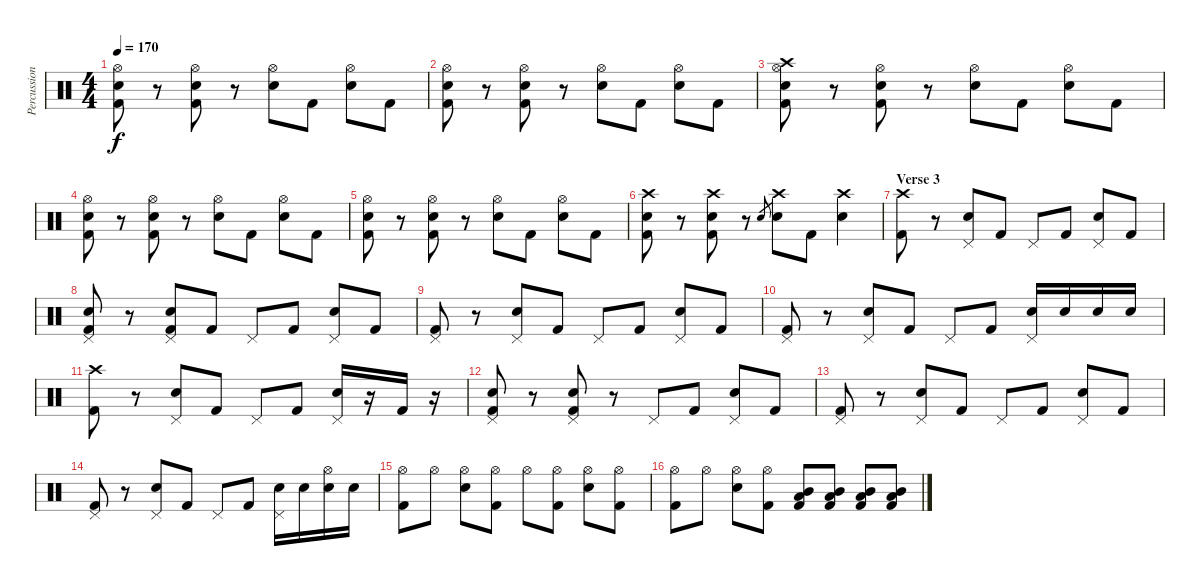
\track ("Percussion" "Percussion") {instrument percussion}
\staff {score}
\articulation defaults
\ts (4 4)
\tempo 170
\clef neutral
\ks c
("Hi-Hat (open)" "Snare (hit) 2" "Kick (hit) 2").8{dy f} r.8 ("Hi-Hat (open)" "Snare (hit) 2" "Kick (hit) 2").8 r.8 ("Hi-Hat (open)" "Snare (hit) 2").8 "Kick (hit) 2".8 ("Hi-Hat (open)" "Snare (hit) 2").8 "Kick (hit) 2".8 |
("Hi-Hat (open)" "Snare (hit) 2" "Kick (hit) 2").8 r.8 ("Hi-Hat (open)" "Snare (hit) 2" "Kick (hit) 2").8 r.8 ("Hi-Hat (open)" "Snare (hit) 2").8 "Kick (hit) 2".8 ("Hi-Hat (open)" "Snare (hit) 2").8 "Kick (hit) 2".8 |
("Crash high (hit)" "Hi-Hat (open)" "Snare (hit) 2" "Kick (hit) 2").8 r.8 ("Hi-Hat (open)" "Snare (hit) 2" "Kick (hit) 2").8 r.8 ("Hi-Hat (open)" "Snare (hit) 2").8 "Kick (hit) 2".8 ("Hi-Hat (open)" "Snare (hit) 2").8 "Kick (hit) 2".8 |
("Hi-Hat (open)" "Snare (hit) 2" "Kick (hit) 2").8 r.8 ("Hi-Hat (open)" "Snare (hit) 2" "Kick (hit) 2").8 r.8 ("Hi-Hat (open)" "Snare (hit) 2").8 "Kick (hit) 2".8 ("Hi-Hat (open)" "Snare (hit) 2").8 "Kick (hit) 2".8 |
("Hi-Hat (open)" "Snare (hit) 2" "Kick (hit) 2").8 r.8 ("Hi-Hat (open)" "Snare (hit) 2" "Kick (hit) 2").8 r.8 ("Hi-Hat (open)" "Snare (hit) 2").8 "Kick (hit) 2".8 ("Hi-Hat (open)" "Snare (hit) 2").8 "Kick (hit) 2".8 |
("Crash high (hit)" "Snare (hit) 2" "Kick (hit) 2").8 r.8 ("Crash high (hit)" "Snare (hit) 2" "Kick (hit) 2").8 r.8 "Snare (hit) 2".8{gr} ("Crash high (hit)" "Snare (hit) 2").8 "Kick (hit) 2".8 ("Crash high (hit)" "Snare (hit) 2").4 |
\section ("" "Verse 3")
("Crash high (hit)" "Kick (hit) 2").8 r.8 ("Pedal Hi-Hat (hit)" "Snare (hit) 2").8 "Kick (hit) 2".8 "Pedal Hi-Hat (hit)".8 "Kick (hit) 2".8 ("Pedal Hi-Hat (hit)" "Snare (hit) 2").8 "Kick (hit) 2".8 |
("Pedal Hi-Hat (hit)" "Snare (hit) 2" "Kick (hit) 2").8 r.8 ("Pedal Hi-Hat (hit)" "Snare (hit) 2" "Kick (hit) 2").8 "Kick (hit) 2".8 "Pedal Hi-Hat (hit)".8 "Kick (hit) 2".8 ("Pedal Hi-Hat (hit)" "Snare (hit) 2").8 "Kick (hit) 2".8 |
("Pedal Hi-Hat (hit)" "Kick (hit) 2").8 r.8 ("Pedal Hi-Hat (hit)" "Snare (hit) 2").8 "Kick (hit) 2".8 "Pedal Hi-Hat (hit)".8 "Kick (hit) 2".8 ("Pedal Hi-Hat (hit)" "Snare (hit) 2").8 "Kick (hit) 2".8 |
("Pedal Hi-Hat (hit)" "Kick (hit) 2").8 r.8 ("Pedal Hi-Hat (hit)" "Snare (hit) 2").8 "Kick (hit) 2".8 "Pedal Hi-Hat (hit)".8 "Kick (hit) 2".8 ("Pedal Hi-Hat (hit)" "Snare (hit) 2").16 "Snare (hit) 2".16 "Snare (hit) 2".16 "Snare (hit) 2".16 |
("Crash high (hit)" "Kick (hit) 2").8 r.8 ("Pedal Hi-Hat (hit)" "Snare (hit) 2").8 "Kick (hit) 2".8 "Pedal Hi-Hat (hit)".8 "Kick (hit) 2".8 ("Pedal Hi-Hat (hit)" "Snare (hit) 2").16 r.16 "Kick (hit) 2".16 r.16 |
("Pedal Hi-Hat (hit)" "Snare (hit) 2" "Kick (hit) 2").8 r.8 ("Pedal Hi-Hat (hit)" "Snare (hit) 2" "Kick (hit) 2").8 r.8 "Pedal Hi-Hat (hit)".8 "Kick (hit) 2".8 ("Pedal Hi-Hat (hit)" "Snare (hit) 2").8 "Kick (hit) 2".8 |
("Pedal Hi-Hat (hit)" "Kick (hit) 2").8 r.8 ("Pedal Hi-Hat (hit)" "Snare (hit) 2").8 "Kick (hit) 2".8 "Pedal Hi-Hat (hit)".8 "Kick (hit) 2".8 ("Pedal Hi-Hat (hit)" "Snare (hit) 2").8 "Kick (hit) 2".8 |
("Pedal Hi-Hat (hit)" "Kick (hit) 2").8 r.8 ("Pedal Hi-Hat (hit)" "Snare (hit) 2").8 "Kick (hit) 2".8 "Pedal Hi-Hat (hit)".8 "Kick (hit) 2".8 ("Pedal Hi-Hat (hit)" "Snare (hit) 2").16 "Snare (hit) 2".16 ("Hi-Hat (open)" "Snare (hit) 2").16 "Snare (hit) 2".16 |
("Hi-Hat (open)" "Kick (hit) 2").8 "Hi-Hat (open)".8 ("Hi-Hat (open)" "Snare (hit) 2").8 ("Hi-Hat (open)" "Kick (hit) 2").8 "Hi-Hat (open)".8 ("Hi-Hat (open)" "Kick (hit) 2").8 ("Hi-Hat (open)" "Snare (hit) 2").8 ("Hi-Hat (open)" "Kick (hit) 2").8 |
("Hi-Hat (open)" "Kick (hit) 2").8 "Hi-Hat (open)".8 ("Hi-Hat (open)" "Snare (hit) 2").8 ("Hi-Hat (open)" "Kick (hit) 2").8 ("Mid Tom (hit)" "Low Tom (hit)" "Kick (hit) 2").8 ("Mid Tom (hit)" "Low Tom (hit)" "Kick (hit) 2").8 ("Mid Tom (hit)" "Low Tom (hit)" "Kick (hit) 2").8 ("Mid Tom (hit)" "Low Tom (hit)" "Kick (hit) 2").8
